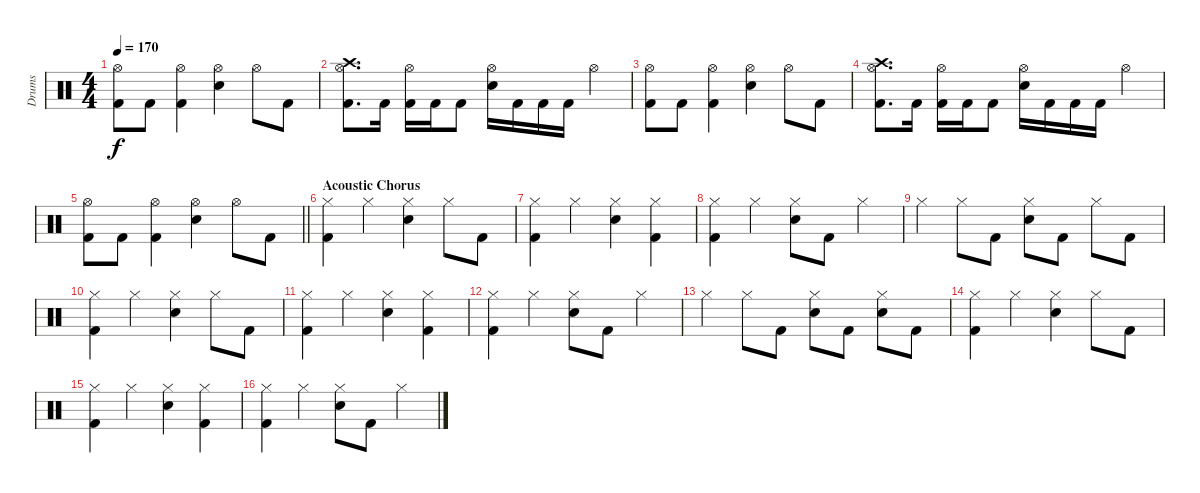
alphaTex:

\track ("Drums" "Drums") {instrument percussion}
\staff {score}
\articulation defaults
\ts (4 4)
\tempo 170
\clef neutral
\ks c
("Hi-Hat (open)" "Kick (hit) 2").8{dy f} "Kick (hit) 2".8 ("Hi-Hat (open)" "Kick (hit) 2").4 ("Hi-Hat (open)" "Electric Snare (hit)").4 "Hi-Hat (open)".8 "Kick (hit) 2".8 |
("Crash high (hit)" "Hi-Hat (open)" "Kick (hit) 2").8{d} "Kick (hit) 2".16 ("Hi-Hat (open)" "Kick (hit) 2").16 "Kick (hit) 2".16 "Kick (hit) 2".8 ("Hi-Hat (open)" "Electric Snare (hit)").16 "Kick (hit) 2".16 "Kick (hit) 2".16 "Kick (hit) 2".16 "Hi-Hat (open)".4 |
("Hi-Hat (open)" "Kick (hit) 2").8 "Kick (hit) 2".8 ("Hi-Hat (open)" "Kick (hit) 2").4 ("Hi-Hat (open)" "Electric Snare (hit)").4 "Hi-Hat (open)".8 "Kick (hit) 2".8 |
("Crash high (hit)" "Hi-Hat (open)" "Kick (hit) 2").8{d} "Kick (hit) 2".16 ("Hi-Hat (open)" "Kick (hit) 2").16 "Kick (hit) 2".16 "Kick (hit) 2".8 ("Hi-Hat (open)" "Electric Snare (hit)").16 "Kick (hit) 2".16 "Kick (hit) 2".16 "Kick (hit) 2".16 "Hi-Hat (open)".4 |
\barLineRight lightlight
("Hi-Hat (open)" "Kick (hit) 2").8 "Kick (hit) 2".8 ("Hi-Hat (open)" "Kick (hit) 2").4 ("Hi-Hat (open)" "Electric Snare (hit)").4 "Hi-Hat (open)".8 "Kick (hit) 2".8 |
\section ("" "Acoustic Chorus")
("Hi-Hat (closed)" "Kick (hit) 2").4 "Hi-Hat (closed)".4 ("Hi-Hat (closed)" "Electric Snare (hit)").4 "Hi-Hat (closed)".8 "Kick (hit) 2".8 |
("Hi-Hat (closed)" "Kick (hit) 2").4 "Hi-Hat (closed)".4 ("Hi-Hat (closed)" "Electric Snare (hit)").4 ("Hi-Hat (closed)" "Kick (hit) 2").4 |
("Hi-Hat (closed)" "Kick (hit) 2").4 "Hi-Hat (closed)".4 ("Hi-Hat (closed)" "Electric Snare (hit)").8 "Kick (hit) 2".8 "Hi-Hat (closed)".4 |
"Hi-Hat (closed)".4 "Hi-Hat (closed)".8 "Kick (hit) 2".8 ("Hi-Hat (closed)" "Electric Snare (hit)").8 "Kick (hit) 2".8 "Hi-Hat (closed)".8 "Kick (hit) 2".8 |
("Hi-Hat (closed)" "Kick (hit) 2").4 "Hi-Hat (closed)".4 ("Hi-Hat (closed)" "Electric Snare (hit)").4 "Hi-Hat (closed)".8 "Kick (hit) 2".8 |
("Hi-Hat (closed)" "Kick (hit) 2").4 "Hi-Hat (closed)".4 ("Hi-Hat (closed)" "Electric Snare (hit)").4 ("Hi-Hat (closed)" "Kick (hit) 2").4 |
("Hi-Hat (closed)" "Kick (hit) 2").4 "Hi-Hat (closed)".4 ("Hi-Hat (closed)" "Electric Snare (hit)").8 "Kick (hit) 2".8 "Hi-Hat (closed)".4 |
"Hi-Hat (closed)".4 "Hi-Hat (closed)".8 "Kick (hit) 2".8 ("Hi-Hat (closed)" "Electric Snare (hit)").8 "Kick (hit) 2".8 ("Hi-Hat (closed)" "Electric Snare (hit)").8 "Kick (hit) 2".8 |
("Hi-Hat (closed)" "Kick (hit) 2").4 "Hi-Hat (closed)".4 ("Hi-Hat (closed)" "Electric Snare (hit)").4 "Hi-Hat (closed)".8 "Kick (hit) 2".8 |
("Hi-Hat (closed)" "Kick (hit) 2").4 "Hi-Hat (closed)".4 ("Hi-Hat (closed)" "Electric Snare (hit)").4 ("Hi-Hat (closed)" "Kick (hit) 2").4 |
("Hi-Hat (closed)" "Kick (hit) 2").4 "Hi-Hat (closed)".4 ("Hi-Hat (closed)" "Electric Snare (hit)").8 "Kick (hit) 2".8 "Hi-Hat (closed)".4
